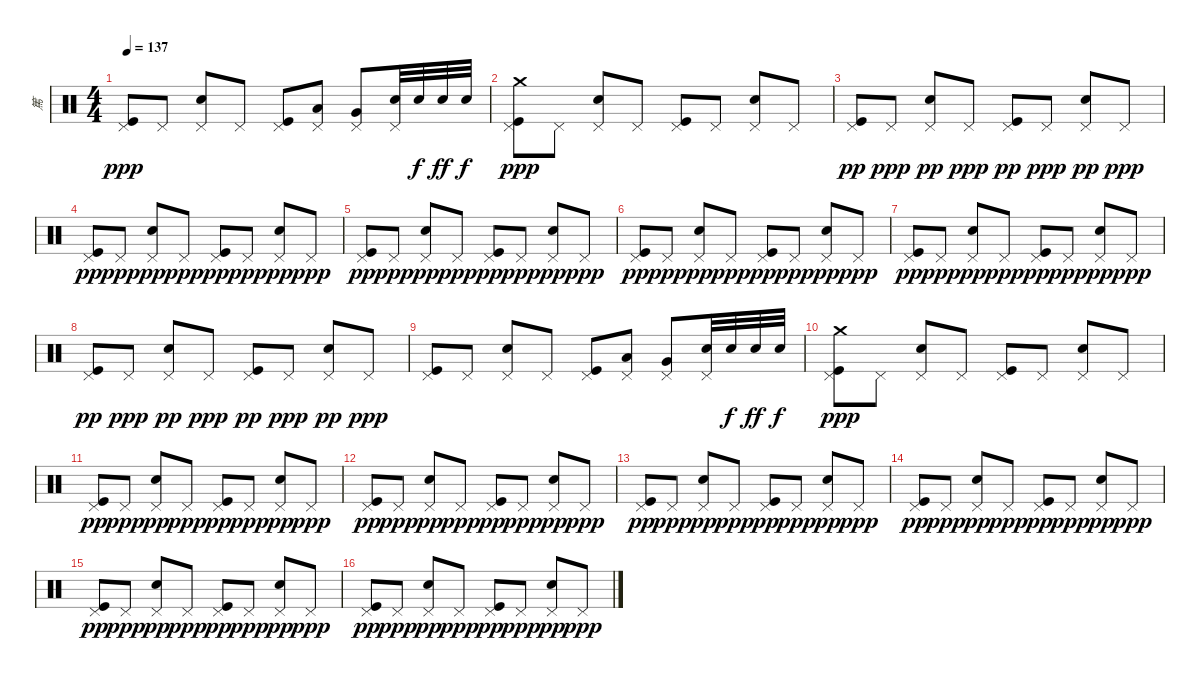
\track ("篤" "篤") {instrument percussion}
\staff {score}
\articulation defaults
\ts (4 4)
\tempo 137
\clef neutral
\ks c
("Kick (hit)" "Pedal Hi-Hat (hit)").8{dy ppp} "Pedal Hi-Hat (hit)".8 ("Snare (hit) 2" "Pedal Hi-Hat (hit)").8 "Pedal Hi-Hat (hit)".8 ("Kick (hit)" "Pedal Hi-Hat (hit)").8 ("Low Tom (hit)" "Pedal Hi-Hat (hit)").8 ("Very Low Tom (hit)" "Pedal Hi-Hat (hit)").8 ("Snare (hit) 2" "Pedal Hi-Hat (hit)").32 "Snare (hit) 2".32{dy f} "Snare (hit) 2".32{dy ff} "Snare (hit) 2".32{dy f} |
("Crash medium (hit)" "Kick (hit)" "Pedal Hi-Hat (hit)").8{dy ppp} "Pedal Hi-Hat (hit)".8 ("Snare (hit) 2" "Pedal Hi-Hat (hit)").8 "Pedal Hi-Hat (hit)".8 ("Kick (hit)" "Pedal Hi-Hat (hit)").8 "Pedal Hi-Hat (hit)".8 ("Snare (hit) 2" "Pedal Hi-Hat (hit)").8 "Pedal Hi-Hat (hit)".8 |
("Kick (hit)" "Pedal Hi-Hat (hit)").8{dy pp} "Pedal Hi-Hat (hit)".8{dy ppp} ("Snare (hit) 2" "Pedal Hi-Hat (hit)").8{dy pp} "Pedal Hi-Hat (hit)".8{dy ppp} ("Kick (hit)" "Pedal Hi-Hat (hit)").8{dy pp} "Pedal Hi-Hat (hit)".8{dy ppp} ("Snare (hit) 2" "Pedal Hi-Hat (hit)").8{dy pp} "Pedal Hi-Hat (hit)".8{dy ppp} |
("Kick (hit)" "Pedal Hi-Hat (hit)").8{dy pp} "Pedal Hi-Hat (hit)".8{dy ppp} ("Snare (hit) 2" "Pedal Hi-Hat (hit)").8{dy pp} "Pedal Hi-Hat (hit)".8{dy ppp} ("Kick (hit)" "Pedal Hi-Hat (hit)").8{dy pp} "Pedal Hi-Hat (hit)".8{dy ppp} ("Snare (hit) 2" "Pedal Hi-Hat (hit)").8{dy pp} "Pedal Hi-Hat (hit)".8{dy ppp} |
("Kick (hit)" "Pedal Hi-Hat (hit)").8{dy pp} "Pedal Hi-Hat (hit)".8{dy ppp} ("Snare (hit) 2" "Pedal Hi-Hat (hit)").8{dy pp} "Pedal Hi-Hat (hit)".8{dy ppp} ("Kick (hit)" "Pedal Hi-Hat (hit)").8{dy pp} "Pedal Hi-Hat (hit)".8{dy ppp} ("Snare (hit) 2" "Pedal Hi-Hat (hit)").8{dy pp} "Pedal Hi-Hat (hit)".8{dy ppp} |
("Kick (hit)" "Pedal Hi-Hat (hit)").8{dy pp} "Pedal Hi-Hat (hit)".8{dy ppp} ("Snare (hit) 2" "Pedal Hi-Hat (hit)").8{dy pp} "Pedal Hi-Hat (hit)".8{dy ppp} ("Kick (hit)" "Pedal Hi-Hat (hit)").8{dy pp} "Pedal Hi-Hat (hit)".8{dy ppp} ("Snare (hit) 2" "Pedal Hi-Hat (hit)").8{dy pp} "Pedal Hi-Hat (hit)".8{dy ppp} |
("Kick (hit)" "Pedal Hi-Hat (hit)").8{dy pp} "Pedal Hi-Hat (hit)".8{dy ppp} ("Snare (hit) 2" "Pedal Hi-Hat (hit)").8{dy pp} "Pedal Hi-Hat (hit)".8{dy ppp} ("Kick (hit)" "Pedal Hi-Hat (hit)").8{dy pp} "Pedal Hi-Hat (hit)".8{dy ppp} ("Snare (hit) 2" "Pedal Hi-Hat (hit)").8{dy pp} "Pedal Hi-Hat (hit)".8{dy ppp} |
("Kick (hit)" "Pedal Hi-Hat (hit)").8{dy pp} "Pedal Hi-Hat (hit)".8{dy ppp} ("Snare (hit) 2" "Pedal Hi-Hat (hit)").8{dy pp} "Pedal Hi-Hat (hit)".8{dy ppp} ("Kick (hit)" "Pedal Hi-Hat (hit)").8{dy pp} "Pedal Hi-Hat (hit)".8{dy ppp} ("Snare (hit) 2" "Pedal Hi-Hat (hit)").8{dy pp} "Pedal Hi-Hat (hit)".8{dy ppp} |
("Kick (hit)" "Pedal Hi-Hat (hit)").8 "Pedal Hi-Hat (hit)".8 ("Snare (hit) 2" "Pedal Hi-Hat (hit)").8 "Pedal Hi-Hat (hit)".8 ("Kick (hit)" "Pedal Hi-Hat (hit)").8 ("Low Tom (hit)" "Pedal Hi-Hat (hit)").8 ("Very Low Tom (hit)" "Pedal Hi-Hat (hit)").8 ("Snare (hit) 2" "Pedal Hi-Hat (hit)").32 "Snare (hit) 2".32{dy f} "Snare (hit) 2".32{dy ff} "Snare (hit) 2".32{dy f} |
("Crash medium (hit)" "Kick (hit)" "Pedal Hi-Hat (hit)").8{dy ppp} "Pedal Hi-Hat (hit)".8 ("Snare (hit) 2" "Pedal Hi-Hat (hit)").8 "Pedal Hi-Hat (hit)".8 ("Kick (hit)" "Pedal Hi-Hat (hit)").8 "Pedal Hi-Hat (hit)".8 ("Snare (hit) 2" "Pedal Hi-Hat (hit)").8 "Pedal Hi-Hat (hit)".8 |
("Kick (hit)" "Pedal Hi-Hat (hit)").8{dy pp} "Pedal Hi-Hat (hit)".8{dy ppp} ("Snare (hit) 2" "Pedal Hi-Hat (hit)").8{dy pp} "Pedal Hi-Hat (hit)".8{dy ppp} ("Kick (hit)" "Pedal Hi-Hat (hit)").8{dy pp} "Pedal Hi-Hat (hit)".8{dy ppp} ("Snare (hit) 2" "Pedal Hi-Hat (hit)").8{dy pp} "Pedal Hi-Hat (hit)".8{dy ppp} |
("Kick (hit)" "Pedal Hi-Hat (hit)").8{dy pp} "Pedal Hi-Hat (hit)".8{dy ppp} ("Snare (hit) 2" "Pedal Hi-Hat (hit)").8{dy pp} "Pedal Hi-Hat (hit)".8{dy ppp} ("Kick (hit)" "Pedal Hi-Hat (hit)").8{dy pp} "Pedal Hi-Hat (hit)".8{dy ppp} ("Snare (hit) 2" "Pedal Hi-Hat (hit)").8{dy pp} "Pedal Hi-Hat (hit)".8{dy ppp} |
("Kick (hit)" "Pedal Hi-Hat (hit)").8{dy pp} "Pedal Hi-Hat (hit)".8{dy ppp} ("Snare (hit) 2" "Pedal Hi-Hat (hit)").8{dy pp} "Pedal Hi-Hat (hit)".8{dy ppp} ("Kick (hit)" "Pedal Hi-Hat (hit)").8{dy pp} "Pedal Hi-Hat (hit)".8{dy ppp} ("Snare (hit) 2" "Pedal Hi-Hat (hit)").8{dy pp} "Pedal Hi-Hat (hit)".8{dy ppp} |
("Kick (hit)" "Pedal Hi-Hat (hit)").8{dy pp} "Pedal Hi-Hat (hit)".8{dy ppp} ("Snare (hit) 2" "Pedal Hi-Hat (hit)").8{dy pp} "Pedal Hi-Hat (hit)".8{dy ppp} ("Kick (hit)" "Pedal Hi-Hat (hit)").8{dy pp} "Pedal Hi-Hat (hit)".8{dy ppp} ("Snare (hit) 2" "Pedal Hi-Hat (hit)").8{dy pp} "Pedal Hi-Hat (hit)".8{dy ppp} |
("Kick (hit)" "Pedal Hi-Hat (hit)").8{dy pp} "Pedal Hi-Hat (hit)".8{dy ppp} ("Snare (hit) 2" "Pedal Hi-Hat (hit)").8{dy pp} "Pedal Hi-Hat (hit)".8{dy ppp} ("Kick (hit)" "Pedal Hi-Hat (hit)").8{dy pp} "Pedal Hi-Hat (hit)".8{dy ppp} ("Snare (hit) 2" "Pedal Hi-Hat (hit)").8{dy pp} "Pedal Hi-Hat (hit)".8{dy ppp} |
("Kick (hit)" "Pedal Hi-Hat (hit)").8{dy pp} "Pedal Hi-Hat (hit)".8{dy ppp} ("Snare (hit) 2" "Pedal Hi-Hat (hit)").8{dy pp} "Pedal Hi-Hat (hit)".8{dy ppp} ("Kick (hit)" "Pedal Hi-Hat (hit)").8{dy pp} "Pedal Hi-Hat (hit)".8{dy ppp} ("Snare (hit) 2" "Pedal Hi-Hat (hit)").8{dy pp} "Pedal Hi-Hat (hit)".8{dy ppp}
